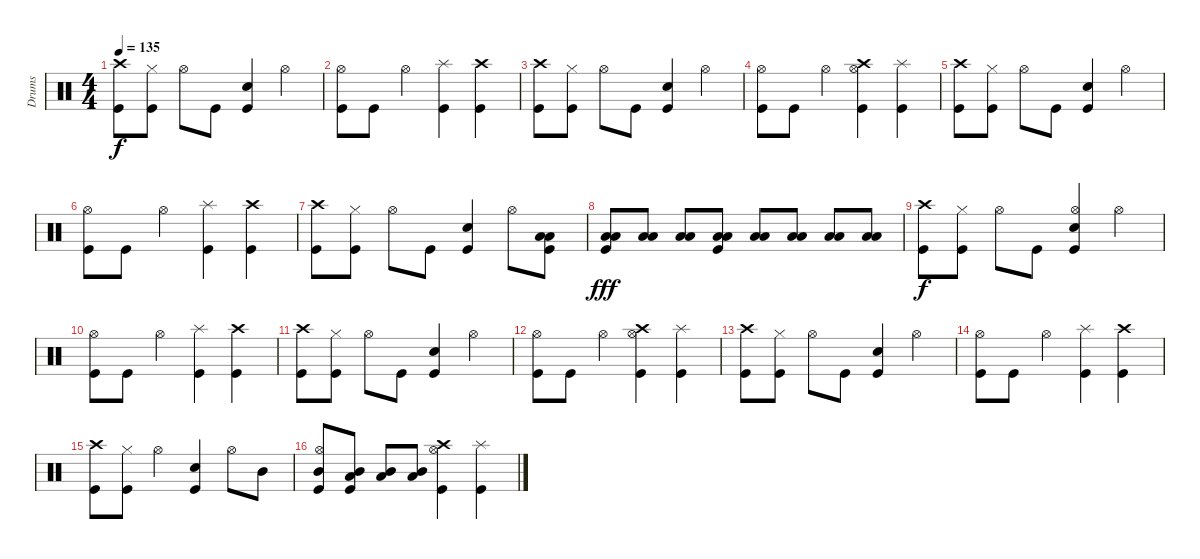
\track ("Drums" "Drums") {instrument percussion}
\staff {score}
\articulation defaults
\ts (4 4)
\tempo 135
\clef neutral
\ks c
("Crash high (hit)" "Kick (hit)").8{dy f} ("Hi-Hat (closed)" "Kick (hit)").8 "Hi-Hat (open)".8 "Kick (hit)".8 ("Snare (hit) 2" "Kick (hit)").4 "Hi-Hat (open)".4 |
("Hi-Hat (open)" "Kick (hit)").8 "Kick (hit)".8 "Hi-Hat (open)".4 ("Splash (hit)" "Kick (hit)").4 ("Crash high (hit)" "Kick (hit)").4 |
("Crash high (hit)" "Kick (hit)").8 ("Hi-Hat (closed)" "Kick (hit)").8 "Hi-Hat (open)".8 "Kick (hit)".8 ("Snare (hit) 2" "Kick (hit)").4 "Hi-Hat (open)".4 |
("Hi-Hat (open)" "Kick (hit)").8 "Kick (hit)".8 "Hi-Hat (open)".4 ("Crash high (hit)" "Hi-Hat (open)" "Kick (hit)").4 ("Splash (hit)" "Kick (hit)").4 |
("Crash high (hit)" "Kick (hit)").8 ("Hi-Hat (closed)" "Kick (hit)").8 "Hi-Hat (open)".8 "Kick (hit)".8 ("Snare (hit) 2" "Kick (hit)").4 "Hi-Hat (open)".4 |
("Hi-Hat (open)" "Kick (hit)").8 "Kick (hit)".8 "Hi-Hat (open)".4 ("Splash (hit)" "Kick (hit)").4 ("Crash high (hit)" "Kick (hit)").4 |
("Crash high (hit)" "Kick (hit)").8 ("Hi-Hat (closed)" "Kick (hit)").8 "Hi-Hat (open)".8 "Kick (hit)".8 ("Snare (hit) 2" "Kick (hit)").4 "Hi-Hat (open)".8 ("Low Floor Tom (hit)" "Low Floor Tom (hit)" "Kick (hit)").8 |
("Low Floor Tom (hit)" "Low Floor Tom (hit)" "Kick (hit)").8{dy fff} ("Low Tom (hit)" "Low Tom (hit)").8 ("Low Tom (hit)" "Low Tom (hit)").8 ("Low Tom (hit)" "Low Tom (hit)" "Kick (hit)").8 ("Low Floor Tom (hit)" "Low Floor Tom (hit)").8 ("Low Tom (hit)" "Low Tom (hit)").8 ("Low Tom (hit)" "Low Tom (hit)").8 ("Low Tom (hit)" "Low Tom (hit)").8 |
("Crash high (hit)" "Kick (hit)").8{dy f} ("Hi-Hat (closed)" "Kick (hit)").8 "Hi-Hat (open)".8 "Kick (hit)".8 ("Hi-Hat (open)" "Snare (hit) 2" "Kick (hit)").4 "Hi-Hat (open)".4 |
("Hi-Hat (open)" "Kick (hit)").8 "Kick (hit)".8 "Hi-Hat (open)".4 ("Splash (hit)" "Kick (hit)").4 ("Crash high (hit)" "Kick (hit)").4 |
("Crash high (hit)" "Kick (hit)").8 ("Hi-Hat (closed)" "Kick (hit)").8 "Hi-Hat (open)".8 "Kick (hit)".8 ("Snare (hit) 2" "Kick (hit)").4 "Hi-Hat (open)".4 |
("Hi-Hat (open)" "Kick (hit)").8 "Kick (hit)".8 "Hi-Hat (open)".4 ("Crash high (hit)" "Hi-Hat (open)" "Kick (hit)").4 ("Splash (hit)" "Kick (hit)").4 |
("Crash high (hit)" "Kick (hit)").8 ("Hi-Hat (closed)" "Kick (hit)").8 "Hi-Hat (open)".8 "Kick (hit)".8 ("Snare (hit) 2" "Kick (hit)").4 "Hi-Hat (open)".4 |
("Hi-Hat (open)" "Kick (hit)").8 "Kick (hit)".8 "Hi-Hat (open)".4 ("Splash (hit)" "Kick (hit)").4 ("Crash high (hit)" "Kick (hit)").4 |
("Crash high (hit)" "Kick (hit)").8 ("Hi-Hat (closed)" "Kick (hit)").8 "Hi-Hat (open)".4 ("Snare (hit) 2" "Kick (hit)").4 "Hi-Hat (open)".8 "Mid Tom (hit)".8 |
("Mid Tom (hit)" "Hi-Hat (open)" "Kick (hit)").8 ("Mid Tom (hit)" "Low Tom (hit)" "Kick (hit)").8 ("Mid Tom (hit)" "Low Tom (hit)").8 ("Mid Tom (hit)" "Low Tom (hit)").8 ("Crash high (hit)" "Hi-Hat (open)" "Kick (hit)").4 ("Splash (hit)" "Kick (hit)").4
